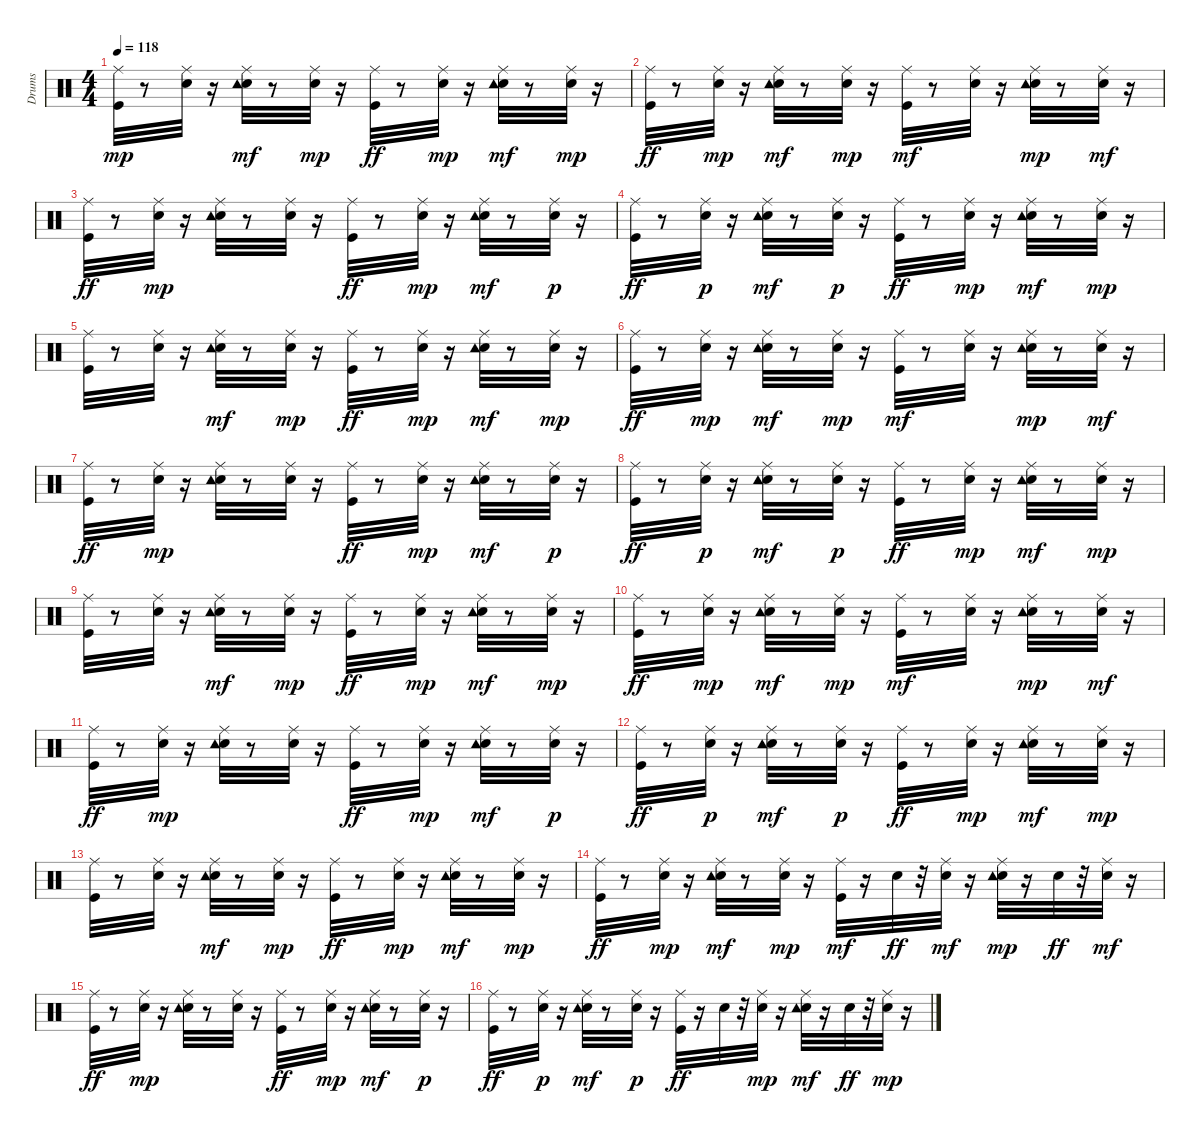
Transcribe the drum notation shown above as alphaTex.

\track ("Drums" "Drums") {instrument percussion}
\staff {score}
\articulation defaults
\ts (4 4)
\tempo 118
\clef neutral
\ks c
("Kick (hit)" "Ride (middle)").32{dy mp} r.8 ("Electric Snare (hit)" "Ride (middle)").32 r.16 ("Electric Snare (hit)" "Ride (middle)" "Tambourine (hit)").32{dy mf} r.8 ("Electric Snare (hit)" "Ride (middle)").32{dy mp} r.16 ("Ride (middle)" "Kick (hit)").32{dy ff} r.8 ("Electric Snare (hit)" "Ride (middle)").32{dy mp} r.16 ("Electric Snare (hit)" "Ride (middle)" "Tambourine (hit)").32{dy mf} r.8 ("Electric Snare (hit)" "Ride (middle)").32{dy mp} r.16 |
("Ride (middle)" "Kick (hit)").32{dy ff} r.8 ("Electric Snare (hit)" "Ride (middle)").32{dy mp} r.16 ("Electric Snare (hit)" "Ride (middle)" "Tambourine (hit)").32{dy mf} r.8 ("Electric Snare (hit)" "Ride (middle)").32{dy mp} r.16 ("Kick (hit)" "Ride (middle)").32{dy mf} r.8 ("Electric Snare (hit)" "Ride (middle)").32 r.16 ("Electric Snare (hit)" "Ride (middle)" "Tambourine (hit)").32{dy mp} r.8 ("Electric Snare (hit)" "Ride (middle)").32{dy mf} r.16 |
("Ride (middle)" "Kick (hit)").32{dy ff} r.8 ("Electric Snare (hit)" "Ride (middle)").32{dy mp} r.16 ("Electric Snare (hit)" "Tambourine (hit)" "Ride (middle)").32 r.8 ("Electric Snare (hit)" "Ride (middle)").32 r.16 ("Ride (middle)" "Kick (hit)").32{dy ff} r.8 ("Electric Snare (hit)" "Ride (middle)").32{dy mp} r.16 ("Electric Snare (hit)" "Ride (middle)" "Tambourine (hit)").32{dy mf} r.8 ("Ride (middle)" "Electric Snare (hit)").32{dy p} r.16 |
("Ride (middle)" "Kick (hit)").32{dy ff} r.8 ("Electric Snare (hit)" "Ride (middle)").32{dy p} r.16 ("Electric Snare (hit)" "Ride (middle)" "Tambourine (hit)").32{dy mf} r.8 ("Ride (middle)" "Electric Snare (hit)").32{dy p} r.16 ("Ride (middle)" "Kick (hit)").32{dy ff} r.8 ("Electric Snare (hit)" "Ride (middle)").32{dy mp} r.16 ("Electric Snare (hit)" "Ride (middle)" "Tambourine (hit)").32{dy mf} r.8 ("Electric Snare (hit)" "Ride (middle)").32{dy mp} r.16 |
("Kick (hit)" "Ride (middle)").32 r.8 ("Electric Snare (hit)" "Ride (middle)").32 r.16 ("Electric Snare (hit)" "Ride (middle)" "Tambourine (hit)").32{dy mf} r.8 ("Electric Snare (hit)" "Ride (middle)").32{dy mp} r.16 ("Ride (middle)" "Kick (hit)").32{dy ff} r.8 ("Electric Snare (hit)" "Ride (middle)").32{dy mp} r.16 ("Electric Snare (hit)" "Ride (middle)" "Tambourine (hit)").32{dy mf} r.8 ("Electric Snare (hit)" "Ride (middle)").32{dy mp} r.16 |
("Ride (middle)" "Kick (hit)").32{dy ff} r.8 ("Electric Snare (hit)" "Ride (middle)").32{dy mp} r.16 ("Electric Snare (hit)" "Ride (middle)" "Tambourine (hit)").32{dy mf} r.8 ("Electric Snare (hit)" "Ride (middle)").32{dy mp} r.16 ("Kick (hit)" "Ride (middle)").32{dy mf} r.8 ("Electric Snare (hit)" "Ride (middle)").32 r.16 ("Electric Snare (hit)" "Ride (middle)" "Tambourine (hit)").32{dy mp} r.8 ("Electric Snare (hit)" "Ride (middle)").32{dy mf} r.16 |
("Ride (middle)" "Kick (hit)").32{dy ff} r.8 ("Electric Snare (hit)" "Ride (middle)").32{dy mp} r.16 ("Electric Snare (hit)" "Tambourine (hit)" "Ride (middle)").32 r.8 ("Electric Snare (hit)" "Ride (middle)").32 r.16 ("Ride (middle)" "Kick (hit)").32{dy ff} r.8 ("Electric Snare (hit)" "Ride (middle)").32{dy mp} r.16 ("Electric Snare (hit)" "Ride (middle)" "Tambourine (hit)").32{dy mf} r.8 ("Ride (middle)" "Electric Snare (hit)").32{dy p} r.16 |
("Ride (middle)" "Kick (hit)").32{dy ff} r.8 ("Electric Snare (hit)" "Ride (middle)").32{dy p} r.16 ("Electric Snare (hit)" "Ride (middle)" "Tambourine (hit)").32{dy mf} r.8 ("Ride (middle)" "Electric Snare (hit)").32{dy p} r.16 ("Ride (middle)" "Kick (hit)").32{dy ff} r.8 ("Electric Snare (hit)" "Ride (middle)").32{dy mp} r.16 ("Electric Snare (hit)" "Ride (middle)" "Tambourine (hit)").32{dy mf} r.8 ("Electric Snare (hit)" "Ride (middle)").32{dy mp} r.16 |
("Kick (hit)" "Ride (middle)").32 r.8 ("Electric Snare (hit)" "Ride (middle)").32 r.16 ("Electric Snare (hit)" "Ride (middle)" "Tambourine (hit)").32{dy mf} r.8 ("Electric Snare (hit)" "Ride (middle)").32{dy mp} r.16 ("Ride (middle)" "Kick (hit)").32{dy ff} r.8 ("Electric Snare (hit)" "Ride (middle)").32{dy mp} r.16 ("Electric Snare (hit)" "Ride (middle)" "Tambourine (hit)").32{dy mf} r.8 ("Electric Snare (hit)" "Ride (middle)").32{dy mp} r.16 |
("Ride (middle)" "Kick (hit)").32{dy ff} r.8 ("Electric Snare (hit)" "Ride (middle)").32{dy mp} r.16 ("Electric Snare (hit)" "Ride (middle)" "Tambourine (hit)").32{dy mf} r.8 ("Electric Snare (hit)" "Ride (middle)").32{dy mp} r.16 ("Kick (hit)" "Ride (middle)").32{dy mf} r.8 ("Electric Snare (hit)" "Ride (middle)").32 r.16 ("Electric Snare (hit)" "Ride (middle)" "Tambourine (hit)").32{dy mp} r.8 ("Electric Snare (hit)" "Ride (middle)").32{dy mf} r.16 |
("Ride (middle)" "Kick (hit)").32{dy ff} r.8 ("Electric Snare (hit)" "Ride (middle)").32{dy mp} r.16 ("Electric Snare (hit)" "Tambourine (hit)" "Ride (middle)").32 r.8 ("Electric Snare (hit)" "Ride (middle)").32 r.16 ("Ride (middle)" "Kick (hit)").32{dy ff} r.8 ("Electric Snare (hit)" "Ride (middle)").32{dy mp} r.16 ("Electric Snare (hit)" "Ride (middle)" "Tambourine (hit)").32{dy mf} r.8 ("Ride (middle)" "Electric Snare (hit)").32{dy p} r.16 |
("Ride (middle)" "Kick (hit)").32{dy ff} r.8 ("Electric Snare (hit)" "Ride (middle)").32{dy p} r.16 ("Electric Snare (hit)" "Ride (middle)" "Tambourine (hit)").32{dy mf} r.8 ("Ride (middle)" "Electric Snare (hit)").32{dy p} r.16 ("Ride (middle)" "Kick (hit)").32{dy ff} r.8 ("Electric Snare (hit)" "Ride (middle)").32{dy mp} r.16 ("Electric Snare (hit)" "Ride (middle)" "Tambourine (hit)").32{dy mf} r.8 ("Electric Snare (hit)" "Ride (middle)").32{dy mp} r.16 |
("Kick (hit)" "Ride (middle)").32 r.8 ("Electric Snare (hit)" "Ride (middle)").32 r.16 ("Electric Snare (hit)" "Ride (middle)" "Tambourine (hit)").32{dy mf} r.8 ("Electric Snare (hit)" "Ride (middle)").32{dy mp} r.16 ("Ride (middle)" "Kick (hit)").32{dy ff} r.8 ("Electric Snare (hit)" "Ride (middle)").32{dy mp} r.16 ("Electric Snare (hit)" "Ride (middle)" "Tambourine (hit)").32{dy mf} r.8 ("Electric Snare (hit)" "Ride (middle)").32{dy mp} r.16 |
("Ride (middle)" "Kick (hit)").32{dy ff} r.8 ("Electric Snare (hit)" "Ride (middle)").32{dy mp} r.16 ("Electric Snare (hit)" "Ride (middle)" "Tambourine (hit)").32{dy mf} r.8 ("Electric Snare (hit)" "Ride (middle)").32{dy mp} r.16 ("Kick (hit)" "Ride (middle)").32{dy mf} r.16 "Electric Snare (hit)".32{dy ff} r.32 ("Electric Snare (hit)" "Ride (middle)").32{dy mf} r.16 ("Electric Snare (hit)" "Ride (middle)" "Tambourine (hit)").32{dy mp} r.16 "Electric Snare (hit)".32{dy ff} r.32 ("Electric Snare (hit)" "Ride (middle)").32{dy mf} r.16 |
("Ride (middle)" "Kick (hit)").32{dy ff} r.8 ("Electric Snare (hit)" "Ride (middle)").32{dy mp} r.16 ("Electric Snare (hit)" "Tambourine (hit)" "Ride (middle)").32 r.8 ("Electric Snare (hit)" "Ride (middle)").32 r.16 ("Ride (middle)" "Kick (hit)").32{dy ff} r.8 ("Electric Snare (hit)" "Ride (middle)").32{dy mp} r.16 ("Electric Snare (hit)" "Ride (middle)" "Tambourine (hit)").32{dy mf} r.8 ("Ride (middle)" "Electric Snare (hit)").32{dy p} r.16 |
("Ride (middle)" "Kick (hit)").32{dy ff} r.8 ("Electric Snare (hit)" "Ride (middle)").32{dy p} r.16 ("Electric Snare (hit)" "Ride (middle)" "Tambourine (hit)").32{dy mf} r.8 ("Ride (middle)" "Electric Snare (hit)").32{dy p} r.16 ("Ride (middle)" "Kick (hit)").32{dy ff} r.16 "Electric Snare (hit)".32 r.32 ("Electric Snare (hit)" "Ride (middle)").32{dy mp} r.16 ("Electric Snare (hit)" "Ride (middle)" "Tambourine (hit)").32{dy mf} r.16 "Electric Snare (hit)".32{dy ff} r.32 ("Electric Snare (hit)" "Ride (middle)").32{dy mp} r.16
